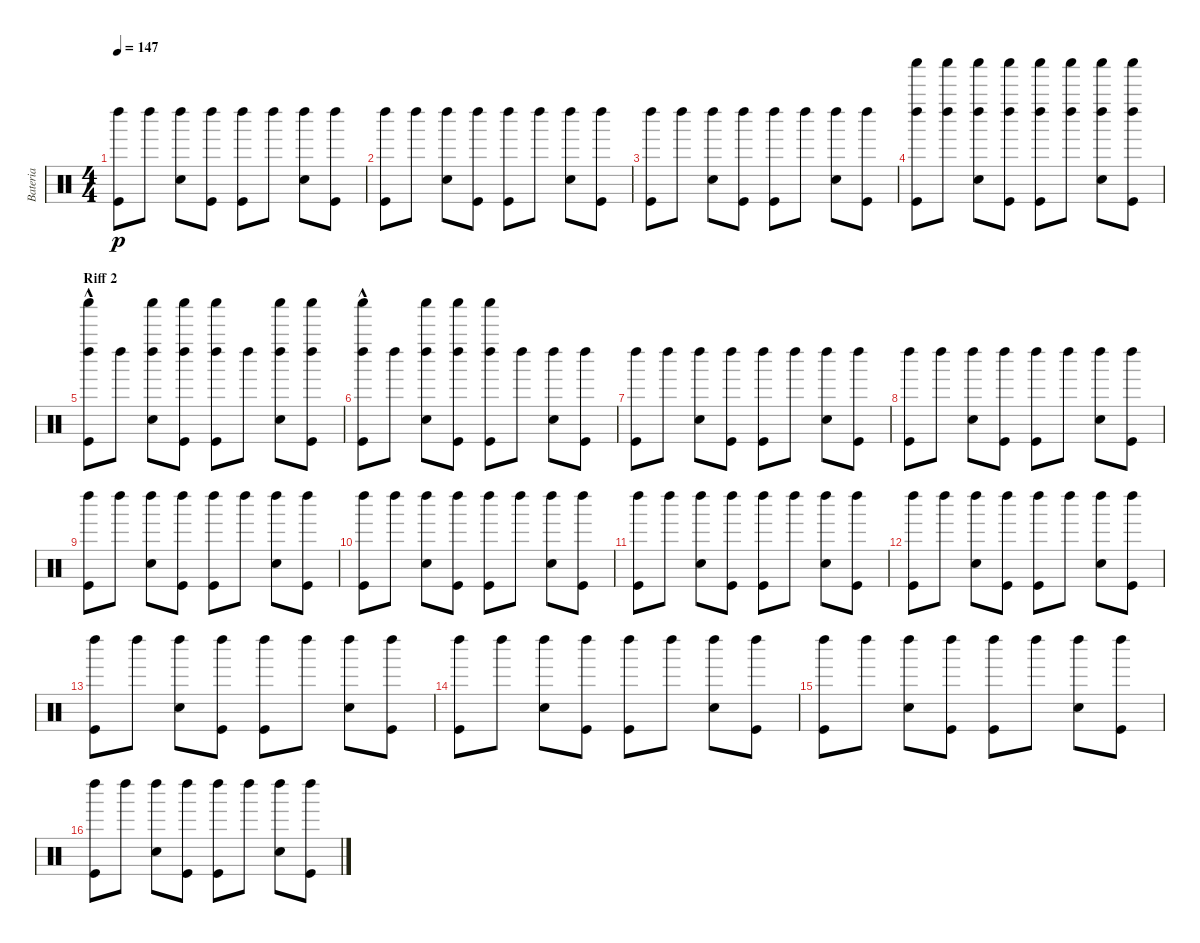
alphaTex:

\track ("Bateria" "Bateria") {instrument percussion}
\staff {score}
\articulation defaults
\ts (4 4)
\tempo 147
\clef neutral
\ks c
("Kick (hit)" "Left Maraca (hit)").8{dy p} "Left Maraca (hit)".8 ("Snare (hit) 2" "Left Maraca (hit)").8 ("Left Maraca (hit)" "Kick (hit)").8 ("Left Maraca (hit)" "Kick (hit)").8 "Left Maraca (hit)".8 ("Snare (hit) 2" "Left Maraca (hit)").8 ("Kick (hit)" "Left Maraca (hit)").8 |
("Left Maraca (hit)" "Kick (hit)").8 "Left Maraca (hit)".8 ("Snare (hit) 2" "Left Maraca (hit)").8 ("Left Maraca (hit)" "Kick (hit)").8 ("Left Maraca (hit)" "Kick (hit)").8 "Left Maraca (hit)".8 ("Snare (hit) 2" "Left Maraca (hit)").8 ("Kick (hit)" "Left Maraca (hit)").8 |
("Kick (hit)" "Left Maraca (hit)").8 "Left Maraca (hit)".8 ("Snare (hit) 2" "Left Maraca (hit)").8 ("Left Maraca (hit)" "Kick (hit)").8 ("Left Maraca (hit)" "Kick (hit)").8 "Left Maraca (hit)".8 ("Snare (hit) 2" "Left Maraca (hit)").8 ("Kick (hit)" "Left Maraca (hit)").8 |
("Shaker (hit)" "Left Maraca (hit)" "Kick (hit)").8 ("Shaker (hit)" "Left Maraca (hit)").8 ("Shaker (hit)" "Snare (hit) 2" "Left Maraca (hit)").8 ("Shaker (hit)" "Left Maraca (hit)" "Kick (hit)").8 ("Shaker (hit)" "Left Maraca (hit)" "Kick (hit)").8 ("Shaker (hit)" "Left Maraca (hit)").8 ("Shaker (hit)" "Snare (hit) 2" "Left Maraca (hit)").8 ("Shaker (hit)" "Kick (hit)" "Left Maraca (hit)").8 |
\section ("" "Riff 2")
("Kick (hit)" "Left Maraca (hit)" "Shaker (hit)"{hac}).8 "Left Maraca (hit)".8 ("Shaker (hit)" "Snare (hit) 2" "Left Maraca (hit)").8 ("Shaker (hit)" "Left Maraca (hit)" "Kick (hit)").8 ("Shaker (hit)" "Left Maraca (hit)" "Kick (hit)").8 "Left Maraca (hit)".8 ("Shaker (hit)" "Snare (hit) 2" "Left Maraca (hit)").8 ("Shaker (hit)" "Kick (hit)" "Left Maraca (hit)").8 |
("Left Maraca (hit)" "Kick (hit)" "Shaker (hit)"{hac}).8 "Left Maraca (hit)".8 ("Shaker (hit)" "Snare (hit) 2" "Left Maraca (hit)").8 ("Shaker (hit)" "Left Maraca (hit)" "Kick (hit)").8 ("Shaker (hit)" "Left Maraca (hit)" "Kick (hit)").8 "Left Maraca (hit)".8 ("Snare (hit) 2" "Left Maraca (hit)").8 ("Kick (hit)" "Left Maraca (hit)").8 |
("Kick (hit)" "Left Maraca (hit)").8 "Left Maraca (hit)".8 ("Snare (hit) 2" "Left Maraca (hit)").8 ("Left Maraca (hit)" "Kick (hit)").8 ("Left Maraca (hit)" "Kick (hit)").8 "Left Maraca (hit)".8 ("Snare (hit) 2" "Left Maraca (hit)").8 ("Kick (hit)" "Left Maraca (hit)").8 |
("Left Maraca (hit)" "Kick (hit)").8 "Left Maraca (hit)".8 ("Snare (hit) 2" "Left Maraca (hit)").8 ("Left Maraca (hit)" "Kick (hit)").8 ("Left Maraca (hit)" "Kick (hit)").8 "Left Maraca (hit)".8 ("Snare (hit) 2" "Left Maraca (hit)").8 ("Kick (hit)" "Left Maraca (hit)").8 |
("Kick (hit)" "Left Maraca (hit)").8 "Left Maraca (hit)".8 ("Snare (hit) 2" "Left Maraca (hit)").8 ("Left Maraca (hit)" "Kick (hit)").8 ("Left Maraca (hit)" "Kick (hit)").8 "Left Maraca (hit)".8 ("Snare (hit) 2" "Left Maraca (hit)").8 ("Kick (hit)" "Left Maraca (hit)").8 |
("Left Maraca (hit)" "Kick (hit)").8 "Left Maraca (hit)".8 ("Snare (hit) 2" "Left Maraca (hit)").8 ("Left Maraca (hit)" "Kick (hit)").8 ("Left Maraca (hit)" "Kick (hit)").8 "Left Maraca (hit)".8 ("Snare (hit) 2" "Left Maraca (hit)").8 ("Kick (hit)" "Left Maraca (hit)").8 |
("Kick (hit)" "Left Maraca (hit)").8 "Left Maraca (hit)".8 ("Snare (hit) 2" "Left Maraca (hit)").8 ("Left Maraca (hit)" "Kick (hit)").8 ("Left Maraca (hit)" "Kick (hit)").8 "Left Maraca (hit)".8 ("Snare (hit) 2" "Left Maraca (hit)").8 ("Kick (hit)" "Left Maraca (hit)").8 |
("Left Maraca (hit)" "Kick (hit)").8 "Left Maraca (hit)".8 ("Snare (hit) 2" "Left Maraca (hit)").8 ("Left Maraca (hit)" "Kick (hit)").8 ("Left Maraca (hit)" "Kick (hit)").8 "Left Maraca (hit)".8 ("Snare (hit) 2" "Left Maraca (hit)").8 ("Kick (hit)" "Left Maraca (hit)").8 |
("Left Maraca (hit)" "Kick (hit)").8 "Left Maraca (hit)".8 ("Snare (hit) 2" "Left Maraca (hit)").8 ("Left Maraca (hit)" "Kick (hit)").8 ("Left Maraca (hit)" "Kick (hit)").8 "Left Maraca (hit)".8 ("Snare (hit) 2" "Left Maraca (hit)").8 ("Kick (hit)" "Left Maraca (hit)").8 |
("Left Maraca (hit)" "Kick (hit)").8 "Left Maraca (hit)".8 ("Snare (hit) 2" "Left Maraca (hit)").8 ("Left Maraca (hit)" "Kick (hit)").8 ("Left Maraca (hit)" "Kick (hit)").8 "Left Maraca (hit)".8 ("Snare (hit) 2" "Left Maraca (hit)").8 ("Kick (hit)" "Left Maraca (hit)").8 |
("Kick (hit)" "Left Maraca (hit)").8 "Left Maraca (hit)".8 ("Snare (hit) 2" "Left Maraca (hit)").8 ("Left Maraca (hit)" "Kick (hit)").8 ("Left Maraca (hit)" "Kick (hit)").8 "Left Maraca (hit)".8 ("Snare (hit) 2" "Left Maraca (hit)").8 ("Kick (hit)" "Left Maraca (hit)").8 |
("Left Maraca (hit)" "Kick (hit)").8 "Left Maraca (hit)".8 ("Snare (hit) 2" "Left Maraca (hit)").8 ("Left Maraca (hit)" "Kick (hit)").8 ("Left Maraca (hit)" "Kick (hit)").8 "Left Maraca (hit)".8 ("Snare (hit) 2" "Left Maraca (hit)").8 ("Kick (hit)" "Left Maraca (hit)").8
